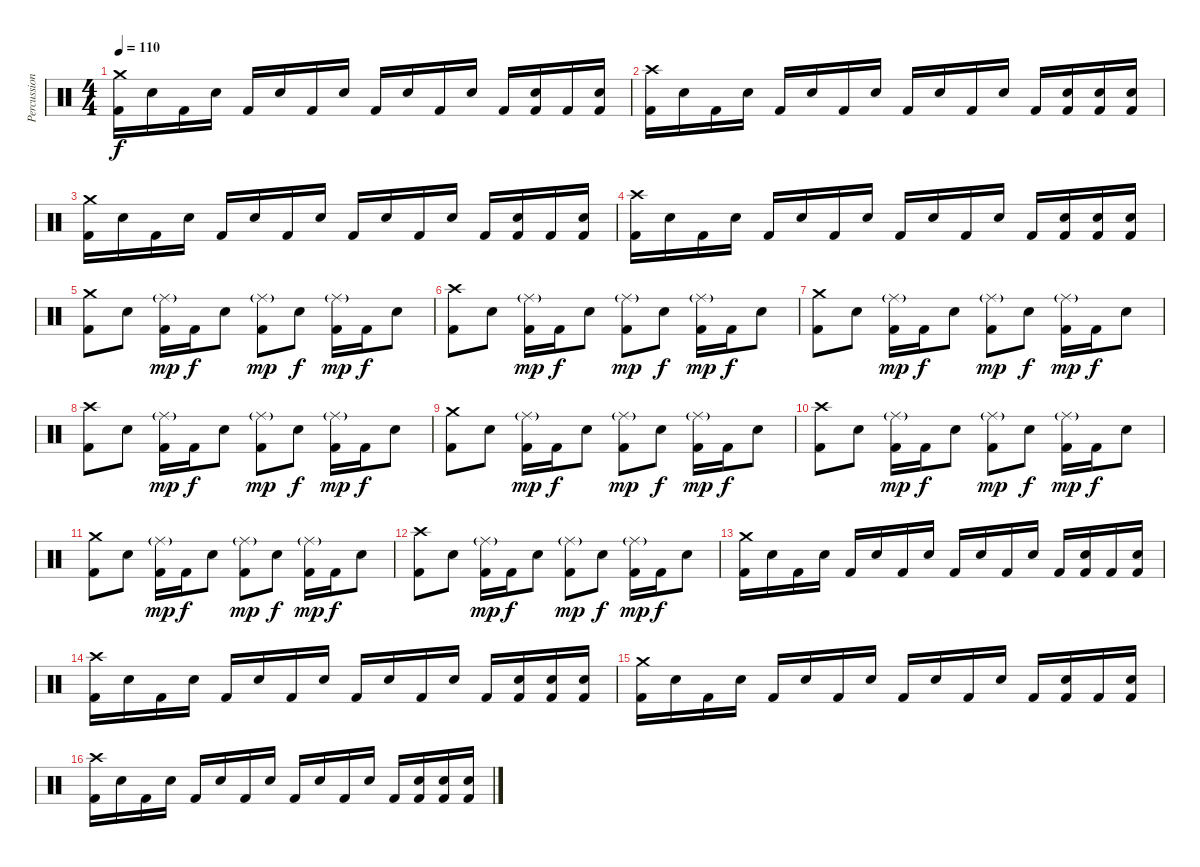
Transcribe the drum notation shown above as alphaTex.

\track ("Percussion" "Percussion") {instrument percussion}
\staff {score}
\articulation defaults
\ts (4 4)
\tempo 110
\clef neutral
\ks c
("Crash medium (hit)" "Kick (hit) 2").16{dy f} "Electric Snare (hit)".16 "Kick (hit) 2".16 "Electric Snare (hit)".16 "Kick (hit) 2".16 "Electric Snare (hit)".16 "Kick (hit) 2".16 "Electric Snare (hit)".16 "Kick (hit) 2".16 "Electric Snare (hit)".16 "Kick (hit) 2".16 "Electric Snare (hit)".16 "Kick (hit) 2".16 ("Electric Snare (hit)" "Kick (hit) 2").16 "Kick (hit) 2".16 ("Electric Snare (hit)" "Kick (hit) 2").16 |
("Crash high (hit)" "Kick (hit) 2").16 "Electric Snare (hit)".16 "Kick (hit) 2".16 "Electric Snare (hit)".16 "Kick (hit) 2".16 "Electric Snare (hit)".16 "Kick (hit) 2".16 "Electric Snare (hit)".16 "Kick (hit) 2".16 "Electric Snare (hit)".16 "Kick (hit) 2".16 "Electric Snare (hit)".16 "Kick (hit) 2".16 ("Electric Snare (hit)" "Kick (hit) 2").16 ("Electric Snare (hit)" "Kick (hit) 2").16 ("Electric Snare (hit)" "Kick (hit) 2").16 |
("Crash medium (hit)" "Kick (hit) 2").16 "Electric Snare (hit)".16 "Kick (hit) 2".16 "Electric Snare (hit)".16 "Kick (hit) 2".16 "Electric Snare (hit)".16 "Kick (hit) 2".16 "Electric Snare (hit)".16 "Kick (hit) 2".16 "Electric Snare (hit)".16 "Kick (hit) 2".16 "Electric Snare (hit)".16 "Kick (hit) 2".16 ("Electric Snare (hit)" "Kick (hit) 2").16 "Kick (hit) 2".16 ("Electric Snare (hit)" "Kick (hit) 2").16 |
("Crash high (hit)" "Kick (hit) 2").16 "Electric Snare (hit)".16 "Kick (hit) 2".16 "Electric Snare (hit)".16 "Kick (hit) 2".16 "Electric Snare (hit)".16 "Kick (hit) 2".16 "Electric Snare (hit)".16 "Kick (hit) 2".16 "Electric Snare (hit)".16 "Kick (hit) 2".16 "Electric Snare (hit)".16 "Kick (hit) 2".16 ("Electric Snare (hit)" "Kick (hit) 2").16 ("Electric Snare (hit)" "Kick (hit) 2").16 ("Electric Snare (hit)" "Kick (hit) 2").16 |
("Crash medium (hit)" "Kick (hit) 2").8 "Electric Snare (hit)".8 ("Ride (middle)"{g} "Kick (hit) 2").16{dy mp} "Kick (hit) 2".16{dy f} "Electric Snare (hit)".8 ("Ride (middle)"{g} "Kick (hit) 2").8{dy mp} "Electric Snare (hit)".8{dy f} ("Ride (middle)"{g} "Kick (hit) 2").16{dy mp} "Kick (hit) 2".16{dy f} "Electric Snare (hit)".8 |
("Crash high (hit)" "Kick (hit) 2").8 "Electric Snare (hit)".8 ("Ride (middle)"{g} "Kick (hit) 2").16{dy mp} "Kick (hit) 2".16{dy f} "Electric Snare (hit)".8 ("Ride (middle)"{g} "Kick (hit) 2").8{dy mp} "Electric Snare (hit)".8{dy f} ("Ride (middle)"{g} "Kick (hit) 2").16{dy mp} "Kick (hit) 2".16{dy f} "Electric Snare (hit)".8 |
("Crash medium (hit)" "Kick (hit) 2").8 "Electric Snare (hit)".8 ("Ride (middle)"{g} "Kick (hit) 2").16{dy mp} "Kick (hit) 2".16{dy f} "Electric Snare (hit)".8 ("Ride (middle)"{g} "Kick (hit) 2").8{dy mp} "Electric Snare (hit)".8{dy f} ("Ride (middle)"{g} "Kick (hit) 2").16{dy mp} "Kick (hit) 2".16{dy f} "Electric Snare (hit)".8 |
("Crash high (hit)" "Kick (hit) 2").8 "Electric Snare (hit)".8 ("Ride (middle)"{g} "Kick (hit) 2").16{dy mp} "Kick (hit) 2".16{dy f} "Electric Snare (hit)".8 ("Ride (middle)"{g} "Kick (hit) 2").8{dy mp} "Electric Snare (hit)".8{dy f} ("Ride (middle)"{g} "Kick (hit) 2").16{dy mp} "Kick (hit) 2".16{dy f} "Electric Snare (hit)".8 |
("Crash medium (hit)" "Kick (hit) 2").8 "Electric Snare (hit)".8 ("Ride (middle)"{g} "Kick (hit) 2").16{dy mp} "Kick (hit) 2".16{dy f} "Electric Snare (hit)".8 ("Ride (middle)"{g} "Kick (hit) 2").8{dy mp} "Electric Snare (hit)".8{dy f} ("Ride (middle)"{g} "Kick (hit) 2").16{dy mp} "Kick (hit) 2".16{dy f} "Electric Snare (hit)".8 |
("Crash high (hit)" "Kick (hit) 2").8 "Electric Snare (hit)".8 ("Ride (middle)"{g} "Kick (hit) 2").16{dy mp} "Kick (hit) 2".16{dy f} "Electric Snare (hit)".8 ("Ride (middle)"{g} "Kick (hit) 2").8{dy mp} "Electric Snare (hit)".8{dy f} ("Ride (middle)"{g} "Kick (hit) 2").16{dy mp} "Kick (hit) 2".16{dy f} "Electric Snare (hit)".8 |
("Crash medium (hit)" "Kick (hit) 2").8 "Electric Snare (hit)".8 ("Ride (middle)"{g} "Kick (hit) 2").16{dy mp} "Kick (hit) 2".16{dy f} "Electric Snare (hit)".8 ("Ride (middle)"{g} "Kick (hit) 2").8{dy mp} "Electric Snare (hit)".8{dy f} ("Ride (middle)"{g} "Kick (hit) 2").16{dy mp} "Kick (hit) 2".16{dy f} "Electric Snare (hit)".8 |
("Crash high (hit)" "Kick (hit) 2").8 "Electric Snare (hit)".8 ("Ride (middle)"{g} "Kick (hit) 2").16{dy mp} "Kick (hit) 2".16{dy f} "Electric Snare (hit)".8 ("Ride (middle)"{g} "Kick (hit) 2").8{dy mp} "Electric Snare (hit)".8{dy f} ("Ride (middle)"{g} "Kick (hit) 2").16{dy mp} "Kick (hit) 2".16{dy f} "Electric Snare (hit)".8 |
("Crash medium (hit)" "Kick (hit) 2").16 "Electric Snare (hit)".16 "Kick (hit) 2".16 "Electric Snare (hit)".16 "Kick (hit) 2".16 "Electric Snare (hit)".16 "Kick (hit) 2".16 "Electric Snare (hit)".16 "Kick (hit) 2".16 "Electric Snare (hit)".16 "Kick (hit) 2".16 "Electric Snare (hit)".16 "Kick (hit) 2".16 ("Electric Snare (hit)" "Kick (hit) 2").16 "Kick (hit) 2".16 ("Electric Snare (hit)" "Kick (hit) 2").16 |
("Crash high (hit)" "Kick (hit) 2").16 "Electric Snare (hit)".16 "Kick (hit) 2".16 "Electric Snare (hit)".16 "Kick (hit) 2".16 "Electric Snare (hit)".16 "Kick (hit) 2".16 "Electric Snare (hit)".16 "Kick (hit) 2".16 "Electric Snare (hit)".16 "Kick (hit) 2".16 "Electric Snare (hit)".16 "Kick (hit) 2".16 ("Electric Snare (hit)" "Kick (hit) 2").16 ("Electric Snare (hit)" "Kick (hit) 2").16 ("Electric Snare (hit)" "Kick (hit) 2").16 |
("Crash medium (hit)" "Kick (hit) 2").16 "Electric Snare (hit)".16 "Kick (hit) 2".16 "Electric Snare (hit)".16 "Kick (hit) 2".16 "Electric Snare (hit)".16 "Kick (hit) 2".16 "Electric Snare (hit)".16 "Kick (hit) 2".16 "Electric Snare (hit)".16 "Kick (hit) 2".16 "Electric Snare (hit)".16 "Kick (hit) 2".16 ("Electric Snare (hit)" "Kick (hit) 2").16 "Kick (hit) 2".16 ("Electric Snare (hit)" "Kick (hit) 2").16 |
("Crash high (hit)" "Kick (hit) 2").16 "Electric Snare (hit)".16 "Kick (hit) 2".16 "Electric Snare (hit)".16 "Kick (hit) 2".16 "Electric Snare (hit)".16 "Kick (hit) 2".16 "Electric Snare (hit)".16 "Kick (hit) 2".16 "Electric Snare (hit)".16 "Kick (hit) 2".16 "Electric Snare (hit)".16 "Kick (hit) 2".16 ("Electric Snare (hit)" "Kick (hit) 2").16 ("Electric Snare (hit)" "Kick (hit) 2").16 ("Electric Snare (hit)" "Kick (hit) 2").16
